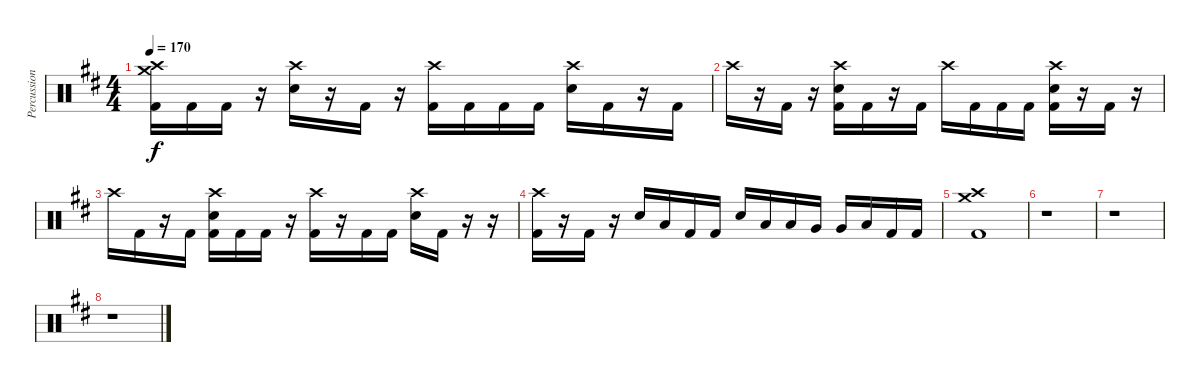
\track ("Percussion" "Percussion") {instrument percussion}
\staff {score}
\articulation defaults
\ts (4 4)
\tempo 170
\clef neutral
\ks bminor
("Crash high (hit)" "Crash medium (hit)" "Kick (hit) 2").16{dy f} "Kick (hit) 2".16 "Kick (hit) 2".16 r.16 ("Crash high (hit)" "Electric Snare (hit)").16 r.16 "Kick (hit) 2".16 r.16 ("Crash high (hit)" "Kick (hit) 2").16 "Kick (hit) 2".16 "Kick (hit) 2".16 "Kick (hit) 2".16 ("Crash high (hit)" "Electric Snare (hit)").16 "Kick (hit) 2".16 r.16 "Kick (hit) 2".16 |
"Crash high (hit)".16 r.16 "Kick (hit) 2".16 r.16 ("Crash high (hit)" "Electric Snare (hit)" "Kick (hit) 2").16 "Kick (hit) 2".16 r.16 "Kick (hit) 2".16 "Crash high (hit)".16 "Kick (hit) 2".16 "Kick (hit) 2".16 "Kick (hit) 2".16 ("Crash high (hit)" "Electric Snare (hit)" "Kick (hit) 2").16 r.16 "Kick (hit) 2".16 r.16 |
"Crash high (hit)".16 "Kick (hit) 2".16 r.16 "Kick (hit) 2".16 ("Crash high (hit)" "Electric Snare (hit)" "Kick (hit) 2").16 "Kick (hit) 2".16 "Kick (hit) 2".16 r.16 ("Crash high (hit)" "Kick (hit) 2").16 r.16 "Kick (hit) 2".16 "Kick (hit) 2".16 ("Crash high (hit)" "Electric Snare (hit)").16 "Kick (hit) 2".16 r.16 r.16 |
("Crash high (hit)" "Kick (hit) 2").16 r.16 "Kick (hit) 2".16 r.16 "Electric Snare (hit)".16 "Low Tom (hit)".16 "Kick (hit) 2".16 "Kick (hit) 2".16 "Electric Snare (hit)".16 "Low Tom (hit)".16 "Low Tom (hit)".16 "Very Low Tom (hit)".16 "Very Low Tom (hit)".16 "Low Floor Tom (hit)".16 "Kick (hit) 2".16 "Kick (hit) 2".16 |
("Crash medium (hit)" "Crash high (hit)" "Kick (hit) 2").1 |
r.1 |
r.1 |
r.1
